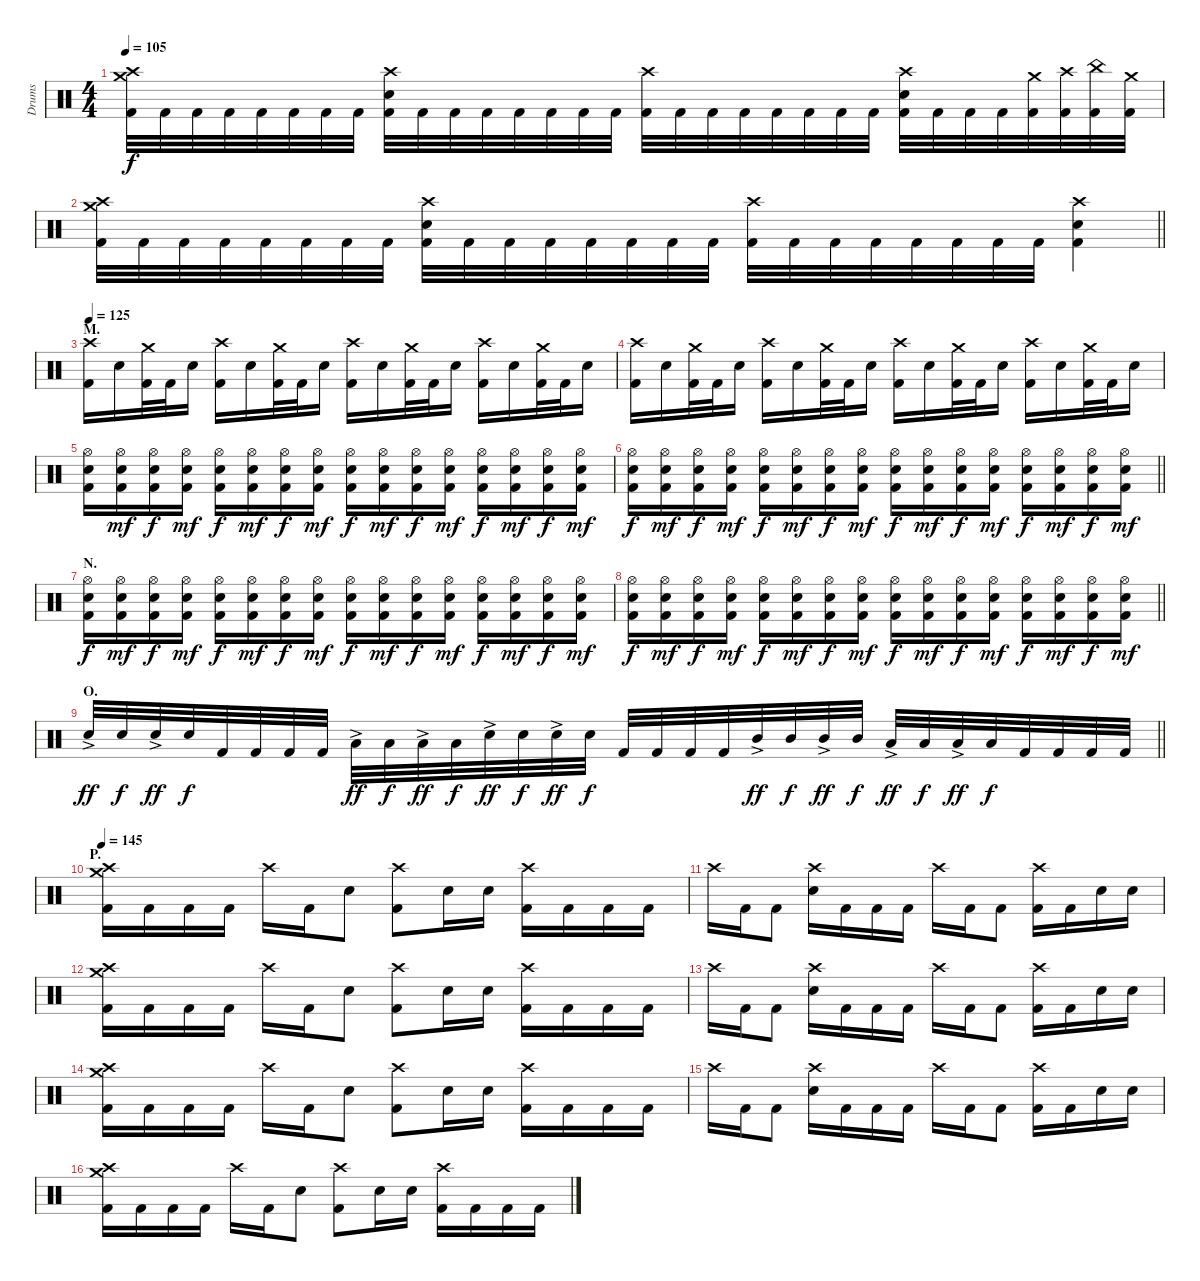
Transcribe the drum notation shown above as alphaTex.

\track ("Drums" "Drums") {instrument percussion}
\staff {score}
\articulation defaults
\ts (4 4)
\tempo 105
\clef neutral
\ks c
("Crash medium (hit)" "Crash high (hit)" "Kick (hit) 2").32{dy f} "Kick (hit) 2".32 "Kick (hit) 2".32 "Kick (hit) 2".32 "Kick (hit) 2".32 "Kick (hit) 2".32 "Kick (hit) 2".32 "Kick (hit) 2".32 ("Crash high (hit)" "Electric Snare (hit)" "Kick (hit) 2").32 "Kick (hit) 2".32 "Kick (hit) 2".32 "Kick (hit) 2".32 "Kick (hit) 2".32 "Kick (hit) 2".32 "Kick (hit) 2".32 "Kick (hit) 2".32 ("Crash high (hit)" "Kick (hit) 2").32 "Kick (hit) 2".32 "Kick (hit) 2".32 "Kick (hit) 2".32 "Kick (hit) 2".32 "Kick (hit) 2".32 "Kick (hit) 2".32 "Kick (hit) 2".32 ("Crash high (hit)" "Electric Snare (hit)" "Kick (hit) 2").32 "Kick (hit) 2".32 "Kick (hit) 2".32 "Kick (hit) 2".32 ("Crash medium (hit)" "Kick (hit) 2").32 ("Crash high (hit)" "Kick (hit) 2").32 ("China (hit)" "Kick (hit) 2").32 ("Crash medium (hit)" "Kick (hit) 2").32 |
\barLineRight lightlight
("Crash medium (hit)" "Crash high (hit)" "Kick (hit) 2").32 "Kick (hit) 2".32 "Kick (hit) 2".32 "Kick (hit) 2".32 "Kick (hit) 2".32 "Kick (hit) 2".32 "Kick (hit) 2".32 "Kick (hit) 2".32 ("Crash high (hit)" "Electric Snare (hit)" "Kick (hit) 2").32 "Kick (hit) 2".32 "Kick (hit) 2".32 "Kick (hit) 2".32 "Kick (hit) 2".32 "Kick (hit) 2".32 "Kick (hit) 2".32 "Kick (hit) 2".32 ("Crash high (hit)" "Kick (hit) 2").32 "Kick (hit) 2".32 "Kick (hit) 2".32 "Kick (hit) 2".32 "Kick (hit) 2".32 "Kick (hit) 2".32 "Kick (hit) 2".32 "Kick (hit) 2".32 ("Crash high (hit)" "Electric Snare (hit)" "Kick (hit) 2").4 |
\section ("" "M.")
\tempo 125
("Crash high (hit)" "Kick (hit) 2").16 "Electric Snare (hit)".16 ("Crash medium (hit)" "Kick (hit) 2").32 "Kick (hit) 2".32 "Electric Snare (hit)".16 ("Crash high (hit)" "Kick (hit) 2").16 "Electric Snare (hit)".16 ("Crash medium (hit)" "Kick (hit) 2").32 "Kick (hit) 2".32 "Electric Snare (hit)".16 ("Crash high (hit)" "Kick (hit) 2").16 "Electric Snare (hit)".16 ("Crash medium (hit)" "Kick (hit) 2").32 "Kick (hit) 2".32 "Electric Snare (hit)".16 ("Crash high (hit)" "Kick (hit) 2").16 "Electric Snare (hit)".16 ("Crash medium (hit)" "Kick (hit) 2").32 "Kick (hit) 2".32 "Electric Snare (hit)".16 |
("Crash high (hit)" "Kick (hit) 2").16 "Electric Snare (hit)".16 ("Crash medium (hit)" "Kick (hit) 2").32 "Kick (hit) 2".32 "Electric Snare (hit)".16 ("Crash high (hit)" "Kick (hit) 2").16 "Electric Snare (hit)".16 ("Crash medium (hit)" "Kick (hit) 2").32 "Kick (hit) 2".32 "Electric Snare (hit)".16 ("Crash high (hit)" "Kick (hit) 2").16 "Electric Snare (hit)".16 ("Crash medium (hit)" "Kick (hit) 2").32 "Kick (hit) 2".32 "Electric Snare (hit)".16 ("Crash high (hit)" "Kick (hit) 2").16 "Electric Snare (hit)".16 ("Crash medium (hit)" "Kick (hit) 2").32 "Kick (hit) 2".32 "Electric Snare (hit)".16 |
("Hi-Hat (open)" "Electric Snare (hit)" "Kick (hit) 2").16 ("Hi-Hat (open)" "Electric Snare (hit)" "Kick (hit) 2").16{dy mf} ("Hi-Hat (open)" "Electric Snare (hit)" "Kick (hit) 2").16{dy f} ("Hi-Hat (open)" "Electric Snare (hit)" "Kick (hit) 2").16{dy mf} ("Hi-Hat (open)" "Electric Snare (hit)" "Kick (hit) 2").16{dy f} ("Hi-Hat (open)" "Electric Snare (hit)" "Kick (hit) 2").16{dy mf} ("Hi-Hat (open)" "Electric Snare (hit)" "Kick (hit) 2").16{dy f} ("Hi-Hat (open)" "Electric Snare (hit)" "Kick (hit) 2").16{dy mf} ("Hi-Hat (open)" "Electric Snare (hit)" "Kick (hit) 2").16{dy f} ("Hi-Hat (open)" "Electric Snare (hit)" "Kick (hit) 2").16{dy mf} ("Hi-Hat (open)" "Electric Snare (hit)" "Kick (hit) 2").16{dy f} ("Hi-Hat (open)" "Electric Snare (hit)" "Kick (hit) 2").16{dy mf} ("Hi-Hat (open)" "Electric Snare (hit)" "Kick (hit) 2").16{dy f} ("Hi-Hat (open)" "Electric Snare (hit)" "Kick (hit) 2").16{dy mf} ("Hi-Hat (open)" "Electric Snare (hit)" "Kick (hit) 2").16{dy f} ("Hi-Hat (open)" "Electric Snare (hit)" "Kick (hit) 2").16{dy mf} |
\barLineRight lightlight
("Hi-Hat (open)" "Electric Snare (hit)" "Kick (hit) 2").16{dy f} ("Hi-Hat (open)" "Electric Snare (hit)" "Kick (hit) 2").16{dy mf} ("Hi-Hat (open)" "Electric Snare (hit)" "Kick (hit) 2").16{dy f} ("Hi-Hat (open)" "Electric Snare (hit)" "Kick (hit) 2").16{dy mf} ("Hi-Hat (open)" "Electric Snare (hit)" "Kick (hit) 2").16{dy f} ("Hi-Hat (open)" "Electric Snare (hit)" "Kick (hit) 2").16{dy mf} ("Hi-Hat (open)" "Electric Snare (hit)" "Kick (hit) 2").16{dy f} ("Hi-Hat (open)" "Electric Snare (hit)" "Kick (hit) 2").16{dy mf} ("Hi-Hat (open)" "Electric Snare (hit)" "Kick (hit) 2").16{dy f} ("Hi-Hat (open)" "Electric Snare (hit)" "Kick (hit) 2").16{dy mf} ("Hi-Hat (open)" "Electric Snare (hit)" "Kick (hit) 2").16{dy f} ("Hi-Hat (open)" "Electric Snare (hit)" "Kick (hit) 2").16{dy mf} ("Hi-Hat (open)" "Electric Snare (hit)" "Kick (hit) 2").16{dy f} ("Hi-Hat (open)" "Electric Snare (hit)" "Kick (hit) 2").16{dy mf} ("Hi-Hat (open)" "Electric Snare (hit)" "Kick (hit) 2").16{dy f} ("Hi-Hat (open)" "Electric Snare (hit)" "Kick (hit) 2").16{dy mf} |
\section ("" "N.")
("Hi-Hat (open)" "Electric Snare (hit)" "Kick (hit) 2").16{dy f} ("Hi-Hat (open)" "Electric Snare (hit)" "Kick (hit) 2").16{dy mf} ("Hi-Hat (open)" "Electric Snare (hit)" "Kick (hit) 2").16{dy f} ("Hi-Hat (open)" "Electric Snare (hit)" "Kick (hit) 2").16{dy mf} ("Hi-Hat (open)" "Electric Snare (hit)" "Kick (hit) 2").16{dy f} ("Hi-Hat (open)" "Electric Snare (hit)" "Kick (hit) 2").16{dy mf} ("Hi-Hat (open)" "Electric Snare (hit)" "Kick (hit) 2").16{dy f} ("Hi-Hat (open)" "Electric Snare (hit)" "Kick (hit) 2").16{dy mf} ("Hi-Hat (open)" "Electric Snare (hit)" "Kick (hit) 2").16{dy f} ("Hi-Hat (open)" "Electric Snare (hit)" "Kick (hit) 2").16{dy mf} ("Hi-Hat (open)" "Electric Snare (hit)" "Kick (hit) 2").16{dy f} ("Hi-Hat (open)" "Electric Snare (hit)" "Kick (hit) 2").16{dy mf} ("Hi-Hat (open)" "Electric Snare (hit)" "Kick (hit) 2").16{dy f} ("Hi-Hat (open)" "Electric Snare (hit)" "Kick (hit) 2").16{dy mf} ("Hi-Hat (open)" "Electric Snare (hit)" "Kick (hit) 2").16{dy f} ("Hi-Hat (open)" "Electric Snare (hit)" "Kick (hit) 2").16{dy mf} |
\barLineRight lightlight
("Hi-Hat (open)" "Electric Snare (hit)" "Kick (hit) 2").16{dy f} ("Hi-Hat (open)" "Electric Snare (hit)" "Kick (hit) 2").16{dy mf} ("Hi-Hat (open)" "Electric Snare (hit)" "Kick (hit) 2").16{dy f} ("Hi-Hat (open)" "Electric Snare (hit)" "Kick (hit) 2").16{dy mf} ("Hi-Hat (open)" "Electric Snare (hit)" "Kick (hit) 2").16{dy f} ("Hi-Hat (open)" "Electric Snare (hit)" "Kick (hit) 2").16{dy mf} ("Hi-Hat (open)" "Electric Snare (hit)" "Kick (hit) 2").16{dy f} ("Hi-Hat (open)" "Electric Snare (hit)" "Kick (hit) 2").16{dy mf} ("Hi-Hat (open)" "Electric Snare (hit)" "Kick (hit) 2").16{dy f} ("Hi-Hat (open)" "Electric Snare (hit)" "Kick (hit) 2").16{dy mf} ("Hi-Hat (open)" "Electric Snare (hit)" "Kick (hit) 2").16{dy f} ("Hi-Hat (open)" "Electric Snare (hit)" "Kick (hit) 2").16{dy mf} ("Hi-Hat (open)" "Electric Snare (hit)" "Kick (hit) 2").16{dy f} ("Hi-Hat (open)" "Electric Snare (hit)" "Kick (hit) 2").16{dy mf} ("Hi-Hat (open)" "Electric Snare (hit)" "Kick (hit) 2").16{dy f} ("Hi-Hat (open)" "Electric Snare (hit)" "Kick (hit) 2").16{dy mf} |
\section ("" "O.")
\barLineRight lightlight "Electric Snare (hit)"{ac}.32{dy ff} "Electric Snare (hit)".32{dy f} "Electric Snare (hit)"{ac}.32{dy ff} "Electric Snare (hit)".32{dy f} "Kick (hit) 2".32 "Kick (hit) 2".32 "Kick (hit) 2".32 "Kick (hit) 2".32 "Low Tom (hit)"{ac}.32{dy ff} "Low Tom (hit)".32{dy f} "Low Tom (hit)"{ac}.32{dy ff} "Low Tom (hit)".32{dy f} "Electric Snare (hit)"{ac}.32{dy ff} "Electric Snare (hit)".32{dy f} "Electric Snare (hit)"{ac}.32{dy ff} "Electric Snare (hit)".32{dy f} "Kick (hit) 2".32 "Kick (hit) 2".32 "Kick (hit) 2".32 "Kick (hit) 2".32 "Mid Tom (hit)"{ac}.32{dy ff} "Mid Tom (hit)".32{dy f} "Mid Tom (hit)"{ac}.32{dy ff} "Mid Tom (hit)".32{dy f} "Low Tom (hit)"{ac}.32{dy ff} "Low Tom (hit)".32{dy f} "Low Tom (hit)"{ac}.32{dy ff} "Low Tom (hit)".32{dy f} "Kick (hit) 2".32 "Kick (hit) 2".32 "Kick (hit) 2".32 "Kick (hit) 2".32
|
\section ("" "P.")
\tempo 145
("Crash medium (hit)" "Crash high (hit)" "Kick (hit) 2").16 "Kick (hit) 2".16 "Kick (hit) 2".16 "Kick (hit) 2".16 "Crash high (hit)".16 "Kick (hit) 2".16 "Electric Snare (hit)".8 ("Crash high (hit)" "Kick (hit) 2").8 "Electric Snare (hit)".16 "Electric Snare (hit)".16 ("Crash high (hit)" "Kick (hit) 2").16 "Kick (hit) 2".16 "Kick (hit) 2".16 "Kick (hit) 2".16 |
"Crash high (hit)".16 "Kick (hit) 2".16 "Kick (hit) 2".8 ("Crash high (hit)" "Electric Snare (hit)").16 "Kick (hit) 2".16 "Kick (hit) 2".16 "Kick (hit) 2".16 "Crash high (hit)".16 "Kick (hit) 2".16 "Kick (hit) 2".8 ("Crash high (hit)" "Kick (hit) 2").16 "Kick (hit) 2".16 "Electric Snare (hit)".16 "Electric Snare (hit)".16 |
("Crash medium (hit)" "Crash high (hit)" "Kick (hit) 2").16 "Kick (hit) 2".16 "Kick (hit) 2".16 "Kick (hit) 2".16 "Crash high (hit)".16 "Kick (hit) 2".16 "Electric Snare (hit)".8 ("Crash high (hit)" "Kick (hit) 2").8 "Electric Snare (hit)".16 "Electric Snare (hit)".16 ("Crash high (hit)" "Kick (hit) 2").16 "Kick (hit) 2".16 "Kick (hit) 2".16 "Kick (hit) 2".16 |
"Crash high (hit)".16 "Kick (hit) 2".16 "Kick (hit) 2".8 ("Crash high (hit)" "Electric Snare (hit)").16 "Kick (hit) 2".16 "Kick (hit) 2".16 "Kick (hit) 2".16 "Crash high (hit)".16 "Kick (hit) 2".16 "Kick (hit) 2".8 ("Crash high (hit)" "Kick (hit) 2").16 "Kick (hit) 2".16 "Electric Snare (hit)".16 "Electric Snare (hit)".16 |
("Crash medium (hit)" "Crash high (hit)" "Kick (hit) 2").16 "Kick (hit) 2".16 "Kick (hit) 2".16 "Kick (hit) 2".16 "Crash high (hit)".16 "Kick (hit) 2".16 "Electric Snare (hit)".8 ("Crash high (hit)" "Kick (hit) 2").8 "Electric Snare (hit)".16 "Electric Snare (hit)".16 ("Crash high (hit)" "Kick (hit) 2").16 "Kick (hit) 2".16 "Kick (hit) 2".16 "Kick (hit) 2".16 |
"Crash high (hit)".16 "Kick (hit) 2".16 "Kick (hit) 2".8 ("Crash high (hit)" "Electric Snare (hit)").16 "Kick (hit) 2".16 "Kick (hit) 2".16 "Kick (hit) 2".16 "Crash high (hit)".16 "Kick (hit) 2".16 "Kick (hit) 2".8 ("Crash high (hit)" "Kick (hit) 2").16 "Kick (hit) 2".16 "Electric Snare (hit)".16 "Electric Snare (hit)".16 |
("Crash medium (hit)" "Crash high (hit)" "Kick (hit) 2").16 "Kick (hit) 2".16 "Kick (hit) 2".16 "Kick (hit) 2".16 "Crash high (hit)".16 "Kick (hit) 2".16 "Electric Snare (hit)".8 ("Crash high (hit)" "Kick (hit) 2").8 "Electric Snare (hit)".16 "Electric Snare (hit)".16 ("Crash high (hit)" "Kick (hit) 2").16 "Kick (hit) 2".16 "Kick (hit) 2".16 "Kick (hit) 2".16
